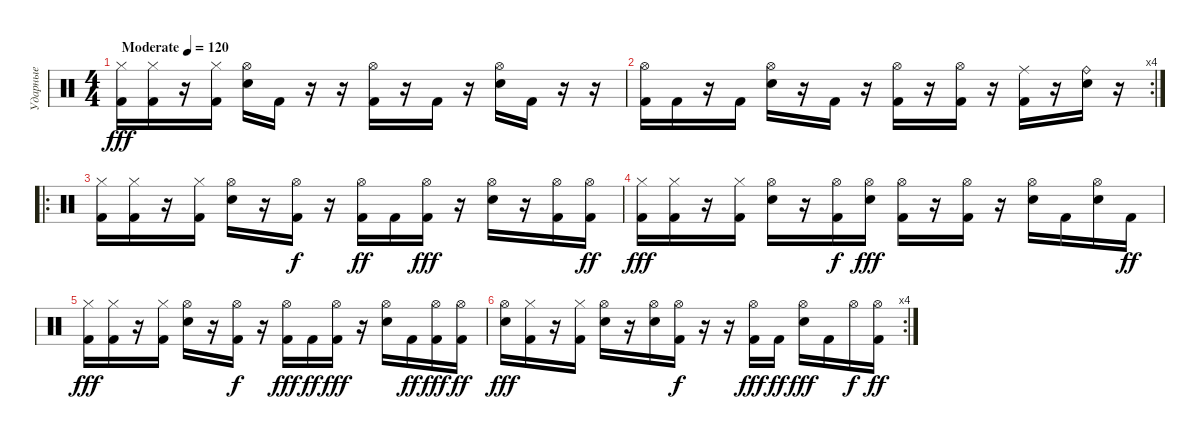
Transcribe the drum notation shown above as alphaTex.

\track ("Ударные" "Ударные") {instrument percussion}
\staff {score}
\articulation defaults
\ts (4 4)
\tempo (120 "Moderate")
\clef neutral
\ks c
("Hi-Hat (closed)" "Kick (hit) 2").16{dy fff} ("Hi-Hat (closed)" "Kick (hit) 2").16 r.16 ("Hi-Hat (closed)" "Kick (hit) 2").16 ("Hi-Hat (open)" "Electric Snare (hit)").16 "Kick (hit) 2".16 r.16 r.16 ("Hi-Hat (open)" "Kick (hit) 2").16 r.16 "Kick (hit) 2".16 r.16 ("Hi-Hat (open)" "Electric Snare (hit)").16 "Kick (hit) 2".16 r.16 r.16 |
\rc 4
("Hi-Hat (open)" "Kick (hit) 2").16 "Kick (hit) 2".16 r.16 "Kick (hit) 2".16 ("Hi-Hat (open)" "Electric Snare (hit)").16 r.16 "Kick (hit) 2".16 r.16 ("Hi-Hat (open)" "Kick (hit) 2").16 r.16 ("Hi-Hat (open)" "Kick (hit) 2").16 r.16 ("Ride (middle)" "Kick (hit) 2").16 r.16 ("Ride (bell)" "Electric Snare (hit)").16 r.16 |
\ro
("Hi-Hat (closed)" "Kick (hit) 2").16 ("Hi-Hat (closed)" "Kick (hit) 2").16 r.16 ("Hi-Hat (closed)" "Kick (hit) 2").16 ("Hi-Hat (open)" "Electric Snare (hit)").16 r.16 ("Hi-Hat (open)" "Kick (hit) 2").16{dy f} r.16 ("Hi-Hat (open)" "Kick (hit) 2").16{dy ff} "Kick (hit) 2".16 ("Hi-Hat (open)" "Kick (hit) 2").16{dy fff} r.16 ("Hi-Hat (open)" "Electric Snare (hit)").16 r.16 ("Hi-Hat (open)" "Kick (hit) 2").16 ("Hi-Hat (open)" "Kick (hit) 2").16{dy ff} |
("Hi-Hat (closed)" "Kick (hit) 2").16{dy fff} ("Hi-Hat (closed)" "Kick (hit) 2").16 r.16 ("Hi-Hat (closed)" "Kick (hit) 2").16 ("Hi-Hat (open)" "Electric Snare (hit)").16 r.16 ("Hi-Hat (open)" "Kick (hit) 2").16{dy f} ("Hi-Hat (open)" "Electric Snare (hit)").16{dy fff} ("Hi-Hat (open)" "Kick (hit) 2").16 r.16 ("Hi-Hat (open)" "Kick (hit) 2").16 r.16 ("Hi-Hat (open)" "Electric Snare (hit)").16 "Kick (hit) 2".16 ("Hi-Hat (open)" "Electric Snare (hit)").16 "Kick (hit) 2".16{dy ff} |
("Hi-Hat (closed)" "Kick (hit) 2").16{dy fff} ("Hi-Hat (closed)" "Kick (hit) 2").16 r.16 ("Hi-Hat (closed)" "Kick (hit) 2").16 ("Hi-Hat (open)" "Electric Snare (hit)").16 r.16 ("Hi-Hat (open)" "Kick (hit) 2").16{dy f} r.16 ("Hi-Hat (open)" "Kick (hit) 2").16{dy fff} "Kick (hit) 2".16{dy ff} ("Hi-Hat (open)" "Kick (hit) 2").16{dy fff} r.16 ("Hi-Hat (open)" "Electric Snare (hit)").16 "Kick (hit) 2".16{dy ff} ("Hi-Hat (open)" "Kick (hit) 2").16{dy fff} ("Hi-Hat (open)" "Kick (hit) 2").16{dy ff} |
\rc 4
("Hi-Hat (open)" "Electric Snare (hit)").16{dy fff} ("Hi-Hat (closed)" "Kick (hit) 2").16 r.16 ("Hi-Hat (closed)" "Kick (hit) 2").16 ("Hi-Hat (open)" "Electric Snare (hit)").16 r.16 ("Hi-Hat (open)" "Electric Snare (hit)").16 ("Hi-Hat (open)" "Kick (hit) 2").16{dy f} r.16 r.16 ("Hi-Hat (open)" "Kick (hit) 2").16{dy fff} "Kick (hit) 2".16{dy ff} ("Hi-Hat (open)" "Electric Snare (hit)").16{dy fff} "Kick (hit) 2".16 "Hi-Hat (open)".16{dy f} ("Hi-Hat (open)" "Kick (hit) 2").16{dy ff}
